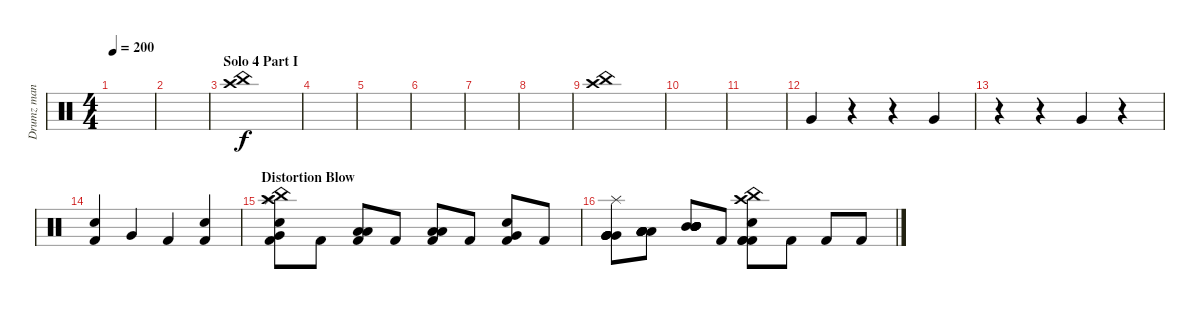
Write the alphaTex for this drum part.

\track ("Drumz man" "Drumz man") {instrument percussion}
\staff {score}
\articulation defaults
\ts (4 4)
\tempo 200
\clef neutral
\ks c
|
|
\section ("" "Solo 4 Part I")
("Crash high (hit)" "China (hit)").1 |
|
|
|
|
|
("Crash high (hit)" "China (hit)").1 |
|
|
"Very Low Tom (hit)".4 r.4 r.4 "Very Low Tom (hit)".4 |
r.4 r.4 "Very Low Tom (hit)".4 r.4 |
("Electric Snare (hit)" "Kick (hit) 2").4 "Very Low Tom (hit)".4 "Kick (hit) 2".4 ("Snare (hit) 2" "Kick (hit) 2").4 |
\section ("" "Distortion Blow")
("China (hit)" "Crash high (hit)" "Kick (hit) 2" "Splash (hit)" "Very Low Tom (hit)" "Electric Snare (hit)").8{volume 14} "Kick (hit) 2".8 ("Kick (hit) 2" "Low Floor Tom (hit)" "Low Floor Tom (hit)").8 "Kick (hit) 2".8 ("Kick (hit) 2" "Low Floor Tom (hit)" "Low Floor Tom (hit)").8 "Kick (hit) 2".8 ("Kick (hit) 2" "Very Low Tom (hit)" "Electric Snare (hit)").8 "Kick (hit) 2".8 |
("Very Low Tom (hit)" "Very Low Tom (hit)" "Very Low Tom (hit)" "Splash (hit)" "Very Low Tom (hit)" "Very Low Tom (hit)").8 ("Low Floor Tom (hit)" "Low Floor Tom (hit)" "Low Floor Tom (hit)" "Low Floor Tom (hit)" "Low Floor Tom (hit)" "Low Floor Tom (hit)").8 ("Mid Tom (hit)" "Mid Tom (hit)" "Mid Tom (hit)" "Mid Tom (hit)" "Mid Tom (hit)" "Mid Tom (hit)").8 "Kick (hit) 2".8 ("China (hit)" "Crash high (hit)" "Kick (hit) 2" "Kick (hit) 2" "Kick (hit) 2" "Electric Snare (hit)").8 "Kick (hit) 2".8 "Kick (hit) 2".8 "Kick (hit) 2".8
